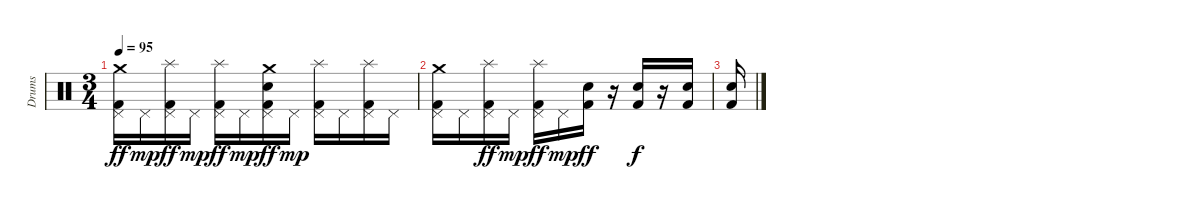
\track ("Drums" "Drums") {instrument percussion}
\staff {score}
\articulation defaults
\ts (3 4)
\tempo 95
\clef neutral
\ks c
("Crash medium (hit)" "Pedal Hi-Hat (hit)" "Kick (hit) 2").16{dy ff} "Pedal Hi-Hat (hit)".16{dy mp} ("Splash (hit)" "Pedal Hi-Hat (hit)" "Kick (hit) 2").16{dy ff} "Pedal Hi-Hat (hit)".16{dy mp} ("Splash (hit)" "Pedal Hi-Hat (hit)" "Kick (hit) 2").16{dy ff} "Pedal Hi-Hat (hit)".16{dy mp} ("Crash medium (hit)" "Pedal Hi-Hat (hit)" "Electric Snare (hit)" "Kick (hit) 2").16{dy ff} "Pedal Hi-Hat (hit)".16{dy mp} ("Splash (hit)" "Pedal Hi-Hat (hit)" "Kick (hit) 2").16 "Pedal Hi-Hat (hit)".16 ("Splash (hit)" "Pedal Hi-Hat (hit)" "Kick (hit) 2").16 "Pedal Hi-Hat (hit)".16 |
("Crash medium (hit)" "Pedal Hi-Hat (hit)" "Kick (hit) 2").16 "Pedal Hi-Hat (hit)".16 ("Splash (hit)" "Pedal Hi-Hat (hit)" "Kick (hit) 2").16{dy ff} "Pedal Hi-Hat (hit)".16{dy mp} ("Splash (hit)" "Pedal Hi-Hat (hit)" "Kick (hit) 2").16{dy ff} "Pedal Hi-Hat (hit)".16{dy mp} ("Electric Snare (hit)" "Kick (hit) 2").16{dy ff} r.16 ("Electric Snare (hit)" "Kick (hit) 2").16{dy f} r.16 ("Electric Snare (hit)" "Kick (hit) 2").16 |
("Electric Snare (hit)" "Kick (hit) 2").16
